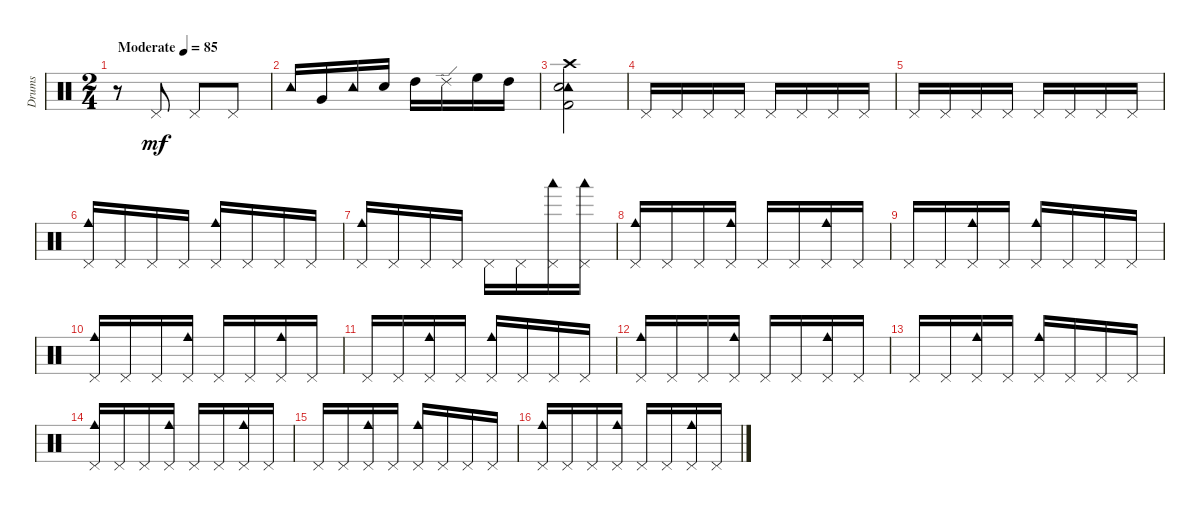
\track ("Drums" "Drums") {instrument percussion}
\staff {score}
\articulation defaults
\ts (2 4)
\tempo (85 "Moderate")
\clef neutral
\ks c
r.8{dy mf} "Pedal Hi-Hat (hit)".8 "Pedal Hi-Hat (hit)".8 "Pedal Hi-Hat (hit)".8 |
"Tambourine (hit)".16 "Very Low Tom (hit)".16 "Tambourine (hit)".16 "Snare (hit) 2".16 "High Tom (hit)".16 "Ride (edge) 2".16 "High Floor Tom (hit)".16 "High Tom (hit)".16 |
("Kick (hit) 2" "Tambourine (hit)" "Crash high (hit)" "Snare (hit) 2").2 |
"Pedal Hi-Hat (hit)".16 "Pedal Hi-Hat (hit)".16 "Pedal Hi-Hat (hit)".16 "Pedal Hi-Hat (hit)".16 "Pedal Hi-Hat (hit)".16 "Pedal Hi-Hat (hit)".16 "Pedal Hi-Hat (hit)".16 "Pedal Hi-Hat (hit)".16 |
"Pedal Hi-Hat (hit)".16 "Pedal Hi-Hat (hit)".16 "Pedal Hi-Hat (hit)".16 "Pedal Hi-Hat (hit)".16 "Pedal Hi-Hat (hit)".16 "Pedal Hi-Hat (hit)".16 "Pedal Hi-Hat (hit)".16 "Pedal Hi-Hat (hit)".16 |
("Pedal Hi-Hat (hit)" "Cowbell medium (hit)").16 "Pedal Hi-Hat (hit)".16 "Pedal Hi-Hat (hit)".16 "Pedal Hi-Hat (hit)".16 ("Pedal Hi-Hat (hit)" "Cowbell medium (hit)").16 "Pedal Hi-Hat (hit)".16 "Pedal Hi-Hat (hit)".16 "Pedal Hi-Hat (hit)".16 |
("Pedal Hi-Hat (hit)" "Cowbell medium (hit)").16 "Pedal Hi-Hat (hit)".16 "Pedal Hi-Hat (hit)".16 "Pedal Hi-Hat (hit)".16 "Pedal Hi-Hat (hit)".16 "Pedal Hi-Hat (hit)".16 ("Woodblock low (hit)" "Pedal Hi-Hat (hit)").16 ("Pedal Hi-Hat (hit)" "Woodblock low (hit)").16 |
("Pedal Hi-Hat (hit)" "Cowbell medium (hit)").16 "Pedal Hi-Hat (hit)".16 "Pedal Hi-Hat (hit)".16 ("Pedal Hi-Hat (hit)" "Cowbell medium (hit)").16 "Pedal Hi-Hat (hit)".16 "Pedal Hi-Hat (hit)".16 ("Pedal Hi-Hat (hit)" "Cowbell medium (hit)").16 "Pedal Hi-Hat (hit)".16 |
"Pedal Hi-Hat (hit)".16 "Pedal Hi-Hat (hit)".16 ("Pedal Hi-Hat (hit)" "Cowbell medium (hit)").16 "Pedal Hi-Hat (hit)".16 ("Pedal Hi-Hat (hit)" "Cowbell medium (hit)").16 "Pedal Hi-Hat (hit)".16 "Pedal Hi-Hat (hit)".16 "Pedal Hi-Hat (hit)".16 |
("Pedal Hi-Hat (hit)" "Cowbell medium (hit)").16 "Pedal Hi-Hat (hit)".16 "Pedal Hi-Hat (hit)".16 ("Pedal Hi-Hat (hit)" "Cowbell medium (hit)").16 "Pedal Hi-Hat (hit)".16 "Pedal Hi-Hat (hit)".16 ("Pedal Hi-Hat (hit)" "Cowbell medium (hit)").16 "Pedal Hi-Hat (hit)".16 |
"Pedal Hi-Hat (hit)".16 "Pedal Hi-Hat (hit)".16 ("Pedal Hi-Hat (hit)" "Cowbell medium (hit)").16 "Pedal Hi-Hat (hit)".16 ("Pedal Hi-Hat (hit)" "Cowbell medium (hit)").16 "Pedal Hi-Hat (hit)".16 "Pedal Hi-Hat (hit)".16 "Pedal Hi-Hat (hit)".16 |
("Pedal Hi-Hat (hit)" "Cowbell medium (hit)").16 "Pedal Hi-Hat (hit)".16 "Pedal Hi-Hat (hit)".16 ("Pedal Hi-Hat (hit)" "Cowbell medium (hit)").16 "Pedal Hi-Hat (hit)".16 "Pedal Hi-Hat (hit)".16 ("Pedal Hi-Hat (hit)" "Cowbell medium (hit)").16 "Pedal Hi-Hat (hit)".16 |
"Pedal Hi-Hat (hit)".16 "Pedal Hi-Hat (hit)".16 ("Pedal Hi-Hat (hit)" "Cowbell medium (hit)").16 "Pedal Hi-Hat (hit)".16 ("Pedal Hi-Hat (hit)" "Cowbell medium (hit)").16 "Pedal Hi-Hat (hit)".16 "Pedal Hi-Hat (hit)".16 "Pedal Hi-Hat (hit)".16 |
("Pedal Hi-Hat (hit)" "Cowbell medium (hit)").16 "Pedal Hi-Hat (hit)".16 "Pedal Hi-Hat (hit)".16 ("Pedal Hi-Hat (hit)" "Cowbell medium (hit)").16 "Pedal Hi-Hat (hit)".16 "Pedal Hi-Hat (hit)".16 ("Pedal Hi-Hat (hit)" "Cowbell medium (hit)").16 "Pedal Hi-Hat (hit)".16 |
"Pedal Hi-Hat (hit)".16 "Pedal Hi-Hat (hit)".16 ("Pedal Hi-Hat (hit)" "Cowbell medium (hit)").16 "Pedal Hi-Hat (hit)".16 ("Pedal Hi-Hat (hit)" "Cowbell medium (hit)").16 "Pedal Hi-Hat (hit)".16 "Pedal Hi-Hat (hit)".16 "Pedal Hi-Hat (hit)".16 |
("Pedal Hi-Hat (hit)" "Cowbell medium (hit)").16 "Pedal Hi-Hat (hit)".16 "Pedal Hi-Hat (hit)".16 ("Pedal Hi-Hat (hit)" "Cowbell medium (hit)").16 "Pedal Hi-Hat (hit)".16 "Pedal Hi-Hat (hit)".16 ("Pedal Hi-Hat (hit)" "Cowbell medium (hit)").16 "Pedal Hi-Hat (hit)".16
